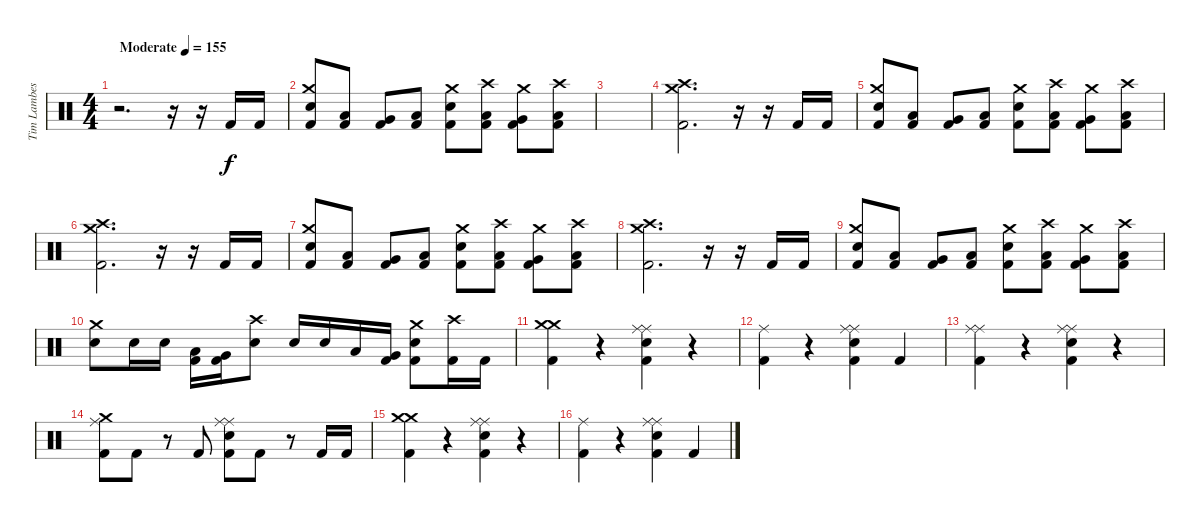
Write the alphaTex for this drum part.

\track ("Tim Lambesis" "Tim Lambes") {instrument percussion}
\staff {score}
\articulation defaults
\ts (4 4)
\tempo (155 "Moderate")
\clef neutral
\ks c
r.2{d dy f} r.16 r.16 "Kick (hit) 2".16 "Kick (hit) 2".16 |
("Crash medium (hit)" "Electric Snare (hit)" "Kick (hit) 2").8 ("Low Tom (hit)" "Kick (hit) 2").8 ("Very Low Tom (hit)" "Kick (hit) 2").8 ("Low Floor Tom (hit)" "Kick (hit) 2").8 ("Crash medium (hit)" "Electric Snare (hit)" "Kick (hit) 2").8 ("Crash high (hit)" "Low Tom (hit)" "Kick (hit) 2").8 ("Crash medium (hit)" "Very Low Tom (hit)" "Kick (hit) 2").8 ("Crash high (hit)" "Low Floor Tom (hit)" "Kick (hit) 2").8 |
|
("Crash medium (hit)" "Crash high (hit)" "Kick (hit) 2").2{d} r.16 r.16 "Kick (hit) 2".16 "Kick (hit) 2".16 |
("Crash medium (hit)" "Electric Snare (hit)" "Kick (hit) 2").8 ("Low Tom (hit)" "Kick (hit) 2").8 ("Very Low Tom (hit)" "Kick (hit) 2").8 ("Low Floor Tom (hit)" "Kick (hit) 2").8 ("Crash medium (hit)" "Electric Snare (hit)" "Kick (hit) 2").8 ("Crash high (hit)" "Low Tom (hit)" "Kick (hit) 2").8 ("Crash medium (hit)" "Very Low Tom (hit)" "Kick (hit) 2").8 ("Crash high (hit)" "Low Floor Tom (hit)" "Kick (hit) 2").8 |
("Crash medium (hit)" "Crash high (hit)" "Kick (hit) 2").2{d} r.16 r.16 "Kick (hit) 2".16 "Kick (hit) 2".16 |
("Crash medium (hit)" "Electric Snare (hit)" "Kick (hit) 2").8 ("Low Tom (hit)" "Kick (hit) 2").8 ("Very Low Tom (hit)" "Kick (hit) 2").8 ("Low Floor Tom (hit)" "Kick (hit) 2").8 ("Crash medium (hit)" "Electric Snare (hit)" "Kick (hit) 2").8 ("Crash high (hit)" "Low Tom (hit)" "Kick (hit) 2").8 ("Crash medium (hit)" "Very Low Tom (hit)" "Kick (hit) 2").8 ("Crash high (hit)" "Low Floor Tom (hit)" "Kick (hit) 2").8 |
("Crash medium (hit)" "Crash high (hit)" "Kick (hit) 2").2{d} r.16 r.16 "Kick (hit) 2".16 "Kick (hit) 2".16 |
("Crash medium (hit)" "Electric Snare (hit)" "Kick (hit) 2").8 ("Low Tom (hit)" "Kick (hit) 2").8 ("Very Low Tom (hit)" "Kick (hit) 2").8 ("Low Floor Tom (hit)" "Kick (hit) 2").8 ("Crash medium (hit)" "Electric Snare (hit)" "Kick (hit) 2").8 ("Crash high (hit)" "Low Tom (hit)" "Kick (hit) 2").8 ("Crash medium (hit)" "Very Low Tom (hit)" "Kick (hit) 2").8 ("Crash high (hit)" "Low Floor Tom (hit)" "Kick (hit) 2").8 |
("Crash medium (hit)" "Electric Snare (hit)").8 "Electric Snare (hit)".16 "Electric Snare (hit)".16 ("Low Tom (hit)" "Kick (hit) 2").16 ("Very Low Tom (hit)" "Kick (hit) 2").16 ("Crash high (hit)" "Electric Snare (hit)").8 "Electric Snare (hit)".16 "Electric Snare (hit)".16 "Low Tom (hit)".16 ("Very Low Tom (hit)" "Kick (hit) 2").16 ("Crash medium (hit)" "Electric Snare (hit)" "Kick (hit) 2").8 ("Crash high (hit)" "Kick (hit) 2").16 "Kick (hit) 2".16 |
("Crash medium (hit)" "Crash medium (hit)" "Kick (hit) 2").4 r.4 ("Electric Snare (hit)" "Ride (middle)" "Ride (middle)" "Kick (hit) 2").4 r.4 |
("Ride (middle)" "Kick (hit) 2").4 r.4 ("Electric Snare (hit)" "Ride (middle)" "Ride (middle)" "Kick (hit) 2").4 "Kick (hit) 2".4 |
("Ride (middle)" "Ride (middle)" "Kick (hit) 2").4 r.4 ("Electric Snare (hit)" "Ride (middle)" "Ride (middle)" "Kick (hit) 2").4 r.4 |
("Crash medium (hit)" "Ride (middle)" "Kick (hit) 2").8 "Kick (hit) 2".8 r.8 "Kick (hit) 2".8 ("Electric Snare (hit)" "Ride (middle)" "Ride (middle)" "Kick (hit) 2").8 "Kick (hit) 2".8 r.8 "Kick (hit) 2".16 "Kick (hit) 2".16 |
("Crash medium (hit)" "Crash medium (hit)" "Kick (hit) 2").4 r.4 ("Electric Snare (hit)" "Ride (middle)" "Ride (middle)" "Kick (hit) 2").4 r.4 |
("Ride (middle)" "Kick (hit) 2").4 r.4 ("Electric Snare (hit)" "Ride (middle)" "Ride (middle)" "Kick (hit) 2").4 "Kick (hit) 2".4
